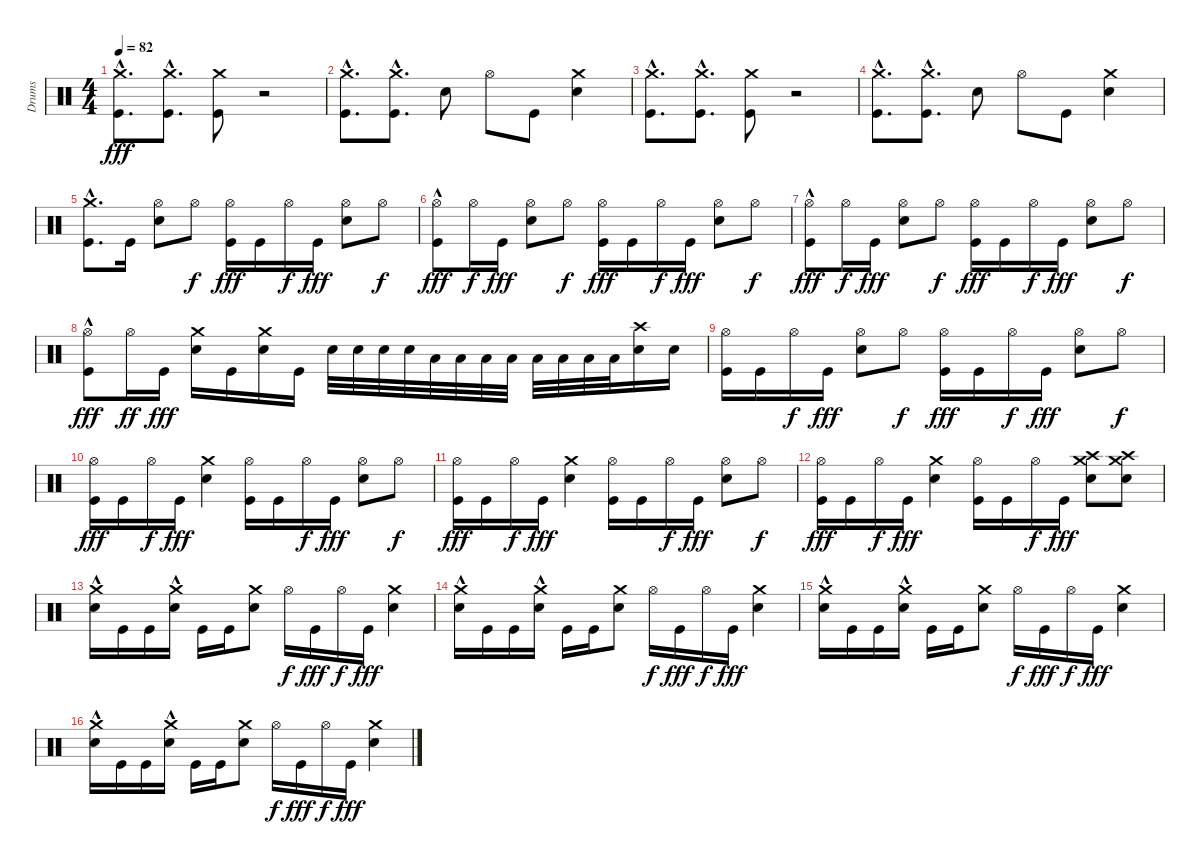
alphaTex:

\track ("Drums" "Drums") {instrument percussion}
\staff {score}
\articulation defaults
\ts (4 4)
\tempo 82
\clef neutral
\ks c
("Kick (hit)"{hac} "Crash medium (hit)"{hac}).8{d dy fff} ("Kick (hit)"{hac} "Crash medium (hit)"{hac}).8{d} ("Kick (hit)" "Crash medium (hit)").8 r.2 |
("Kick (hit)"{hac} "Crash medium (hit)"{hac}).8{d} ("Kick (hit)" "Crash medium (hit)"{hac}).8{d} "Electric Snare (hit)".8 "Hi-Hat (open)".8 "Kick (hit)".8 ("Crash medium (hit)" "Electric Snare (hit)").4 |
("Kick (hit)"{hac} "Crash medium (hit)"{hac}).8{d} ("Kick (hit)"{hac} "Crash medium (hit)"{hac}).8{d} ("Kick (hit)" "Crash medium (hit)").8 r.2 |
("Kick (hit)"{hac} "Crash medium (hit)"{hac}).8{d} ("Kick (hit)" "Crash medium (hit)"{hac}).8{d} "Electric Snare (hit)".8 "Hi-Hat (open)".8 "Kick (hit)".8 ("Crash medium (hit)" "Electric Snare (hit)").4 |
("Kick (hit)"{hac} "Crash medium (hit)").8{d} "Kick (hit)".16 ("Hi-Hat (open)" "Electric Snare (hit)").8 "Hi-Hat (open)".8{dy f} ("Kick (hit)" "Hi-Hat (open)").16{dy fff} "Kick (hit)".16 "Hi-Hat (open)".16{dy f} "Kick (hit)".16{dy fff} ("Electric Snare (hit)" "Hi-Hat (open)").8 "Hi-Hat (open)".8{dy f} |
("Hi-Hat (open)" "Kick (hit)"{hac}).8{dy fff} "Hi-Hat (open)".16{dy f} "Kick (hit)".16{dy fff} ("Hi-Hat (open)" "Electric Snare (hit)").8 "Hi-Hat (open)".8{dy f} ("Hi-Hat (open)" "Kick (hit)").16{dy fff} "Kick (hit)".16 "Hi-Hat (open)".16{dy f} "Kick (hit)".16{dy fff} ("Hi-Hat (open)" "Electric Snare (hit)").8 "Hi-Hat (open)".8{dy f} |
("Hi-Hat (open)" "Kick (hit)"{hac}).8{dy fff} "Hi-Hat (open)".16{dy f} "Kick (hit)".16{dy fff} ("Hi-Hat (open)" "Electric Snare (hit)").8 "Hi-Hat (open)".8{dy f} ("Hi-Hat (open)" "Kick (hit)").16{dy fff} "Kick (hit)".16 "Hi-Hat (open)".16{dy f} "Kick (hit)".16{dy fff} ("Hi-Hat (open)" "Electric Snare (hit)").8 "Hi-Hat (open)".8{dy f} |
("Hi-Hat (open)" "Kick (hit)"{hac}).8{dy fff} "Hi-Hat (open)".16{dy ff} "Kick (hit)".16{dy fff} ("Crash medium (hit)" "Electric Snare (hit)").16 "Kick (hit)".16 ("Crash medium (hit)" "Electric Snare (hit)").16 "Kick (hit)".16 "Electric Snare (hit)".32 "Electric Snare (hit)".32 "Electric Snare (hit)".32 "Electric Snare (hit)".32 "Low Tom (hit)".32 "Low Tom (hit)".32 "Low Tom (hit)".32 "Low Tom (hit)".32 "Low Floor Tom (hit)".32 "Low Floor Tom (hit)".32 "Low Floor Tom (hit)".32 "Low Floor Tom (hit)".32 ("Electric Snare (hit)" "Crash high (hit)").16 "Electric Snare (hit)".16 |
("Hi-Hat (open)" "Kick (hit)").16 "Kick (hit)".16 "Hi-Hat (open)".16{dy f} "Kick (hit)".16{dy fff} ("Hi-Hat (open)" "Electric Snare (hit)").8 "Hi-Hat (open)".8{dy f} ("Hi-Hat (open)" "Kick (hit)").16{dy fff} "Kick (hit)".16 "Hi-Hat (open)".16{dy f} "Kick (hit)".16{dy fff} ("Hi-Hat (open)" "Electric Snare (hit)").8 "Hi-Hat (open)".8{dy f} |
("Kick (hit)" "Hi-Hat (open)").16{dy fff} "Kick (hit)".16 "Hi-Hat (open)".16{dy f} "Kick (hit)".16{dy fff} ("Crash medium (hit)" "Electric Snare (hit)").4 ("Kick (hit)" "Hi-Hat (open)").16 "Kick (hit)".16 "Hi-Hat (open)".16{dy f} "Kick (hit)".16{dy fff} ("Electric Snare (hit)" "Hi-Hat (open)").8 "Hi-Hat (open)".8{dy f} |
("Kick (hit)" "Hi-Hat (open)").16{dy fff} "Kick (hit)".16 "Hi-Hat (open)".16{dy f} "Kick (hit)".16{dy fff} ("Crash medium (hit)" "Electric Snare (hit)").4 ("Kick (hit)" "Hi-Hat (open)").16 "Kick (hit)".16 "Hi-Hat (open)".16{dy f} "Kick (hit)".16{dy fff} ("Electric Snare (hit)" "Hi-Hat (open)").8 "Hi-Hat (open)".8{dy f} |
("Kick (hit)" "Hi-Hat (open)").16{dy fff} "Kick (hit)".16 "Hi-Hat (open)".16{dy f} "Kick (hit)".16{dy fff} ("Crash medium (hit)" "Electric Snare (hit)").4 ("Kick (hit)" "Hi-Hat (open)").16 "Kick (hit)".16 "Hi-Hat (open)".16{dy f} "Kick (hit)".16{dy fff} ("Crash high (hit)" "Electric Snare (hit)" "Crash medium (hit)").8 ("Crash high (hit)" "Electric Snare (hit)" "Crash medium (hit)").8 |
("Electric Snare (hit)"{hac} "Crash medium (hit)"{hac}).16 "Kick (hit)".16 "Kick (hit)".16 ("Crash medium (hit)"{hac} "Electric Snare (hit)").16 "Kick (hit)".16 "Kick (hit)".16 ("Crash medium (hit)" "Electric Snare (hit)").8 "Hi-Hat (open)".16{dy f} "Kick (hit)".16{dy fff} "Hi-Hat (open)".16{dy f} "Kick (hit)".16{dy fff} ("Electric Snare (hit)" "Crash medium (hit)").4 |
("Electric Snare (hit)"{hac} "Crash medium (hit)"{hac}).16 "Kick (hit)".16 "Kick (hit)".16 ("Crash medium (hit)"{hac} "Electric Snare (hit)").16 "Kick (hit)".16 "Kick (hit)".16 ("Crash medium (hit)" "Electric Snare (hit)").8 "Hi-Hat (open)".16{dy f} "Kick (hit)".16{dy fff} "Hi-Hat (open)".16{dy f} "Kick (hit)".16{dy fff} ("Electric Snare (hit)" "Crash medium (hit)").4 |
("Electric Snare (hit)"{hac} "Crash medium (hit)"{hac}).16 "Kick (hit)".16 "Kick (hit)".16 ("Crash medium (hit)"{hac} "Electric Snare (hit)").16 "Kick (hit)".16 "Kick (hit)".16 ("Crash medium (hit)" "Electric Snare (hit)").8 "Hi-Hat (open)".16{dy f} "Kick (hit)".16{dy fff} "Hi-Hat (open)".16{dy f} "Kick (hit)".16{dy fff} ("Electric Snare (hit)" "Crash medium (hit)").4 |
("Electric Snare (hit)"{hac} "Crash medium (hit)"{hac}).16 "Kick (hit)".16 "Kick (hit)".16 ("Crash medium (hit)"{hac} "Electric Snare (hit)").16 "Kick (hit)".16 "Kick (hit)".16 ("Crash medium (hit)" "Electric Snare (hit)").8 "Hi-Hat (open)".16{dy f} "Kick (hit)".16{dy fff} "Hi-Hat (open)".16{dy f} "Kick (hit)".16{dy fff} ("Electric Snare (hit)" "Crash medium (hit)").4
